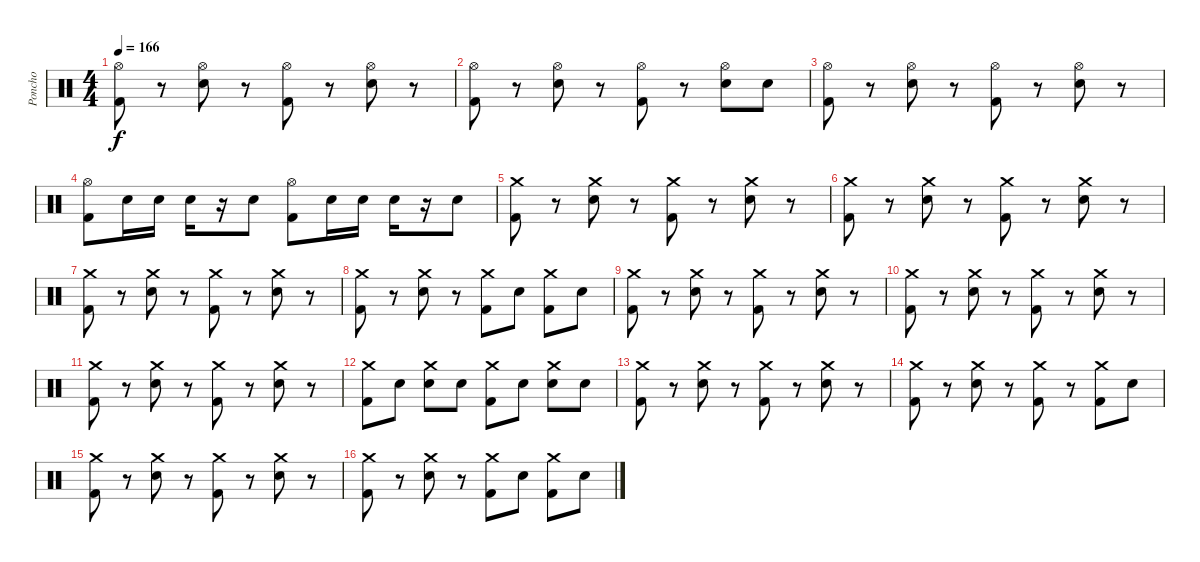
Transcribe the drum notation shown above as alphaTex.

\track ("Poncho" "Poncho") {instrument percussion}
\staff {score}
\articulation defaults
\ts (4 4)
\tempo 166
\clef neutral
\ks c
("Hi-Hat (open)" "Kick (hit) 2").8{dy f} r.8 ("Hi-Hat (open)" "Electric Snare (hit)").8 r.8 ("Hi-Hat (open)" "Kick (hit) 2").8 r.8 ("Hi-Hat (open)" "Electric Snare (hit)").8 r.8 |
("Hi-Hat (open)" "Kick (hit) 2").8 r.8 ("Hi-Hat (open)" "Electric Snare (hit)").8 r.8 ("Hi-Hat (open)" "Kick (hit) 2").8 r.8 ("Hi-Hat (open)" "Electric Snare (hit)").8 "Snare (hit)".8 |
("Hi-Hat (open)" "Kick (hit) 2").8 r.8 ("Hi-Hat (open)" "Electric Snare (hit)").8 r.8 ("Hi-Hat (open)" "Kick (hit) 2").8 r.8 ("Hi-Hat (open)" "Electric Snare (hit)").8 r.8 |
("Hi-Hat (open)" "Kick (hit) 2").8 "Electric Snare (hit)".16 "Electric Snare (hit)".16 "Electric Snare (hit)".16 r.16 "Electric Snare (hit)".8 ("Hi-Hat (open)" "Kick (hit) 2").8 "Electric Snare (hit)".16 "Electric Snare (hit)".16 "Electric Snare (hit)".16 r.16 "Electric Snare (hit)".8 |
("Crash medium (hit)" "Kick (hit) 2").8 r.8 ("Crash medium (hit)" "Electric Snare (hit)").8 r.8 ("Crash medium (hit)" "Kick (hit) 2").8 r.8 ("Crash medium (hit)" "Electric Snare (hit)").8 r.8 |
("Crash medium (hit)" "Kick (hit) 2").8 r.8 ("Crash medium (hit)" "Electric Snare (hit)").8 r.8 ("Crash medium (hit)" "Kick (hit) 2").8 r.8 ("Crash medium (hit)" "Electric Snare (hit)").8 r.8 |
("Crash medium (hit)" "Kick (hit) 2").8 r.8 ("Crash medium (hit)" "Electric Snare (hit)").8 r.8 ("Crash medium (hit)" "Kick (hit) 2").8 r.8 ("Crash medium (hit)" "Electric Snare (hit)").8 r.8 |
("Crash medium (hit)" "Kick (hit) 2").8 r.8 ("Crash medium (hit)" "Electric Snare (hit)").8 r.8 ("Crash medium (hit)" "Kick (hit) 2").8 "Electric Snare (hit)".8 ("Crash medium (hit)" "Kick (hit) 2").8 "Electric Snare (hit)".8 |
("Crash medium (hit)" "Kick (hit) 2").8 r.8 ("Crash medium (hit)" "Electric Snare (hit)").8 r.8 ("Crash medium (hit)" "Kick (hit) 2").8 r.8 ("Crash medium (hit)" "Electric Snare (hit)").8 r.8 |
("Crash medium (hit)" "Kick (hit) 2").8 r.8 ("Crash medium (hit)" "Electric Snare (hit)").8 r.8 ("Crash medium (hit)" "Kick (hit) 2").8 r.8 ("Crash medium (hit)" "Electric Snare (hit)").8 r.8 |
("Crash medium (hit)" "Kick (hit) 2").8 r.8 ("Crash medium (hit)" "Electric Snare (hit)").8 r.8 ("Crash medium (hit)" "Kick (hit) 2").8 r.8 ("Crash medium (hit)" "Electric Snare (hit)").8 r.8 |
("Crash medium (hit)" "Kick (hit) 2").8 "Electric Snare (hit)".8 ("Crash medium (hit)" "Electric Snare (hit)").8 "Electric Snare (hit)".8 ("Crash medium (hit)" "Kick (hit) 2").8 "Electric Snare (hit)".8 ("Crash medium (hit)" "Electric Snare (hit)").8 "Electric Snare (hit)".8 |
("Crash medium (hit)" "Kick (hit) 2").8 r.8 ("Crash medium (hit)" "Electric Snare (hit)").8 r.8 ("Crash medium (hit)" "Kick (hit) 2").8 r.8 ("Crash medium (hit)" "Electric Snare (hit)").8 r.8 |
("Crash medium (hit)" "Kick (hit) 2").8 r.8 ("Crash medium (hit)" "Electric Snare (hit)").8 r.8 ("Crash medium (hit)" "Kick (hit) 2").8 r.8 ("Crash medium (hit)" "Kick (hit) 2").8 "Electric Snare (hit)".8 |
("Crash medium (hit)" "Kick (hit) 2").8 r.8 ("Crash medium (hit)" "Electric Snare (hit)").8 r.8 ("Crash medium (hit)" "Kick (hit) 2").8 r.8 ("Crash medium (hit)" "Electric Snare (hit)").8 r.8 |
("Crash medium (hit)" "Kick (hit) 2").8 r.8 ("Crash medium (hit)" "Electric Snare (hit)").8 r.8 ("Crash medium (hit)" "Kick (hit) 2").8 "Electric Snare (hit)".8 ("Crash medium (hit)" "Kick (hit) 2").8 "Electric Snare (hit)".8
